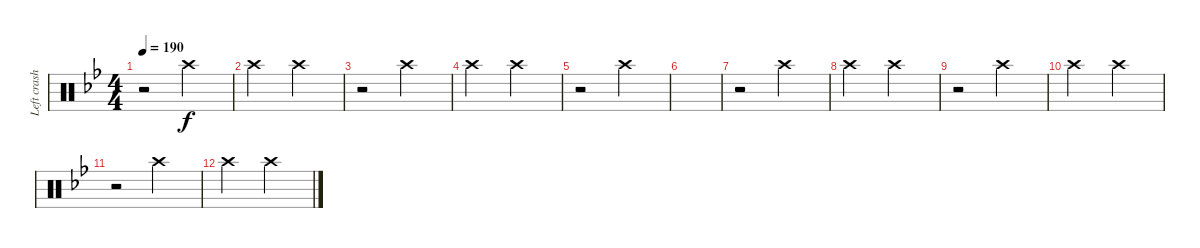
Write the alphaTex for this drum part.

\track ("Left crash" "Left crash") {instrument percussion}
\staff {score}
\articulation defaults
\ts (4 4)
\tempo 190
\clef neutral
\ks bb
r.2{dy f} "Crash high (hit)".2 |
"Crash high (hit)".2 "Crash high (hit)".2 |
r.2 "Crash high (hit)".2 |
"Crash high (hit)".2 "Crash high (hit)".2 |
r.2 "Crash high (hit)".2 |
|
r.2 "Crash high (hit)".2 |
"Crash high (hit)".2 "Crash high (hit)".2 |
r.2 "Crash high (hit)".2 |
"Crash high (hit)".2 "Crash high (hit)".2 |
r.2 "Crash high (hit)".2 |
"Crash high (hit)".2 "Crash high (hit)".2
